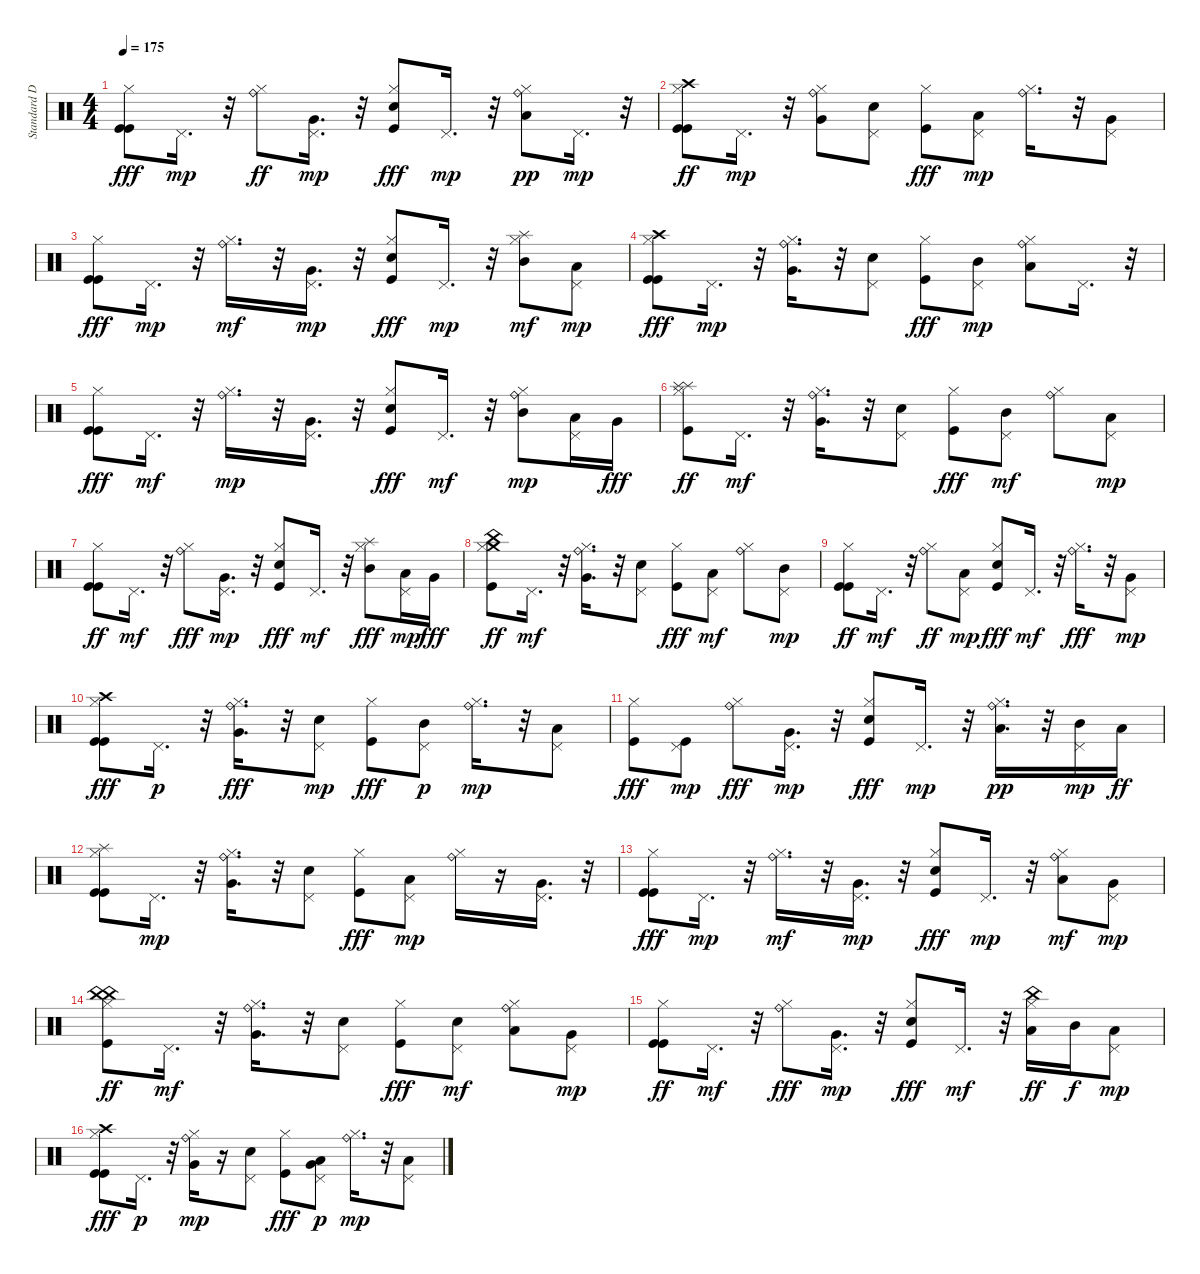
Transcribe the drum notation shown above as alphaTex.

\track ("Standard Drums" "Standard D") {instrument percussion}
\staff {score}
\articulation defaults
\ts (4 4)
\tempo 175
\clef neutral
\ks c
("Kick (hit)" "Kick (hit)" "Hi-Hat (closed)").8{dy fff} "Pedal Hi-Hat (hit)".16{d dy mp} r.32 ("Ride (bell)" "Hi-Hat (closed)").8{dy ff} ("Very Low Tom (hit)" "Pedal Hi-Hat (hit)").16{d dy mp} r.32 ("Snare (hit) 2" "Kick (hit)" "Hi-Hat (closed)").8{dy fff} "Pedal Hi-Hat (hit)".16{d dy mp} r.32 ("Ride (bell)" "Low Tom (hit)" "Hi-Hat (closed)").8{dy pp} "Pedal Hi-Hat (hit)".16{d dy mp} r.32 |
("Crash high (hit)" "Kick (hit)" "Kick (hit)" "Hi-Hat (closed)").8{dy ff} "Pedal Hi-Hat (hit)".16{d dy mp} r.32 ("Ride (bell)" "Very Low Tom (hit)" "Hi-Hat (closed)").8 ("Snare (hit) 2" "Pedal Hi-Hat (hit)").8 ("Kick (hit)" "Hi-Hat (closed)").8{dy fff} ("Low Tom (hit)" "Pedal Hi-Hat (hit)").8{dy mp} ("Ride (bell)" "Hi-Hat (closed)").16{d} r.32 ("Very Low Tom (hit)" "Pedal Hi-Hat (hit)").8 |
("Kick (hit)" "Kick (hit)" "Hi-Hat (closed)").8{dy fff} "Pedal Hi-Hat (hit)".16{d dy mp} r.32 ("Ride (bell)" "Hi-Hat (closed)").16{d dy mf} r.32 ("Very Low Tom (hit)" "Pedal Hi-Hat (hit)").16{d dy mp} r.32 ("Snare (hit) 2" "Kick (hit)" "Hi-Hat (closed)").8{dy fff} "Pedal Hi-Hat (hit)".16{d dy mp} r.32 ("Splash (hit)" "Mid Tom (hit)" "Hi-Hat (closed)").8{dy mf} ("Low Tom (hit)" "Pedal Hi-Hat (hit)").8{dy mp} |
("Crash high (hit)" "Kick (hit)" "Kick (hit)" "Hi-Hat (closed)").8{dy fff} "Pedal Hi-Hat (hit)".16{d dy mp} r.32 ("Ride (bell)" "Very Low Tom (hit)" "Hi-Hat (closed)").16{d} r.32 ("Snare (hit) 2" "Pedal Hi-Hat (hit)").8 ("Kick (hit)" "Hi-Hat (closed)").8{dy fff} ("Mid Tom (hit)" "Pedal Hi-Hat (hit)").8{dy mp} ("Ride (bell)" "Low Tom (hit)" "Hi-Hat (closed)").8 "Pedal Hi-Hat (hit)".16{d} r.32 |
("Kick (hit)" "Kick (hit)" "Hi-Hat (closed)").8{dy fff} "Pedal Hi-Hat (hit)".16{d dy mf} r.32 ("Ride (bell)" "Hi-Hat (closed)").16{d dy mp} r.32 ("Very Low Tom (hit)" "Pedal Hi-Hat (hit)").16{d} r.32 ("Snare (hit) 2" "Kick (hit)" "Hi-Hat (closed)").8{dy fff} "Pedal Hi-Hat (hit)".16{d dy mf} r.32 ("Ride (bell)" "Mid Tom (hit)" "Hi-Hat (closed)").8{dy mp} ("Low Tom (hit)" "Pedal Hi-Hat (hit)").16 "Very Low Tom (hit)".16{dy fff} |
("Splash (hit)" "Kick (hit)" "Splash (hit)" "Hi-Hat (closed)").8{dy ff} "Pedal Hi-Hat (hit)".16{d dy mf} r.32 ("Ride (bell)" "Very Low Tom (hit)" "Hi-Hat (closed)").16{d} r.32 ("Snare (hit) 2" "Pedal Hi-Hat (hit)").8 ("Kick (hit)" "Hi-Hat (closed)").8{dy fff} ("Mid Tom (hit)" "Pedal Hi-Hat (hit)").8{dy mf} ("Ride (bell)" "Hi-Hat (closed)").8 ("Low Tom (hit)" "Pedal Hi-Hat (hit)").8{dy mp} |
("Kick (hit)" "Kick (hit)" "Hi-Hat (closed)").8{dy ff} "Pedal Hi-Hat (hit)".16{d dy mf} r.32 ("Ride (bell)" "Hi-Hat (closed)").8{dy fff} ("Very Low Tom (hit)" "Pedal Hi-Hat (hit)").16{d dy mp} r.32 ("Snare (hit) 2" "Kick (hit)" "Hi-Hat (closed)").8{dy fff} "Pedal Hi-Hat (hit)".16{d dy mf} r.32 ("Splash (hit)" "Mid Tom (hit)" "Hi-Hat (closed)").8{dy fff} ("Low Tom (hit)" "Pedal Hi-Hat (hit)").16{dy mp} "Very Low Tom (hit)".16{dy fff} |
("Crash medium (hit)" "Kick (hit)" "China (hit)" "Hi-Hat (closed)").8{dy ff} "Pedal Hi-Hat (hit)".16{d dy mf} r.32 ("Ride (bell)" "Very Low Tom (hit)" "Hi-Hat (closed)").16{d} r.32 ("Snare (hit) 2" "Pedal Hi-Hat (hit)").8 ("Kick (hit)" "Hi-Hat (closed)").8{dy fff} ("Low Tom (hit)" "Pedal Hi-Hat (hit)").8{dy mf} ("Ride (bell)" "Hi-Hat (closed)").8 ("Mid Tom (hit)" "Pedal Hi-Hat (hit)").8{dy mp} |
("Kick (hit)" "Kick (hit)" "Hi-Hat (closed)").8{dy ff} "Pedal Hi-Hat (hit)".16{d dy mf} r.32 ("Ride (bell)" "Hi-Hat (closed)").8{dy ff} ("Low Tom (hit)" "Pedal Hi-Hat (hit)").8{dy mp} ("Snare (hit) 2" "Kick (hit)" "Hi-Hat (closed)").8{dy fff} "Pedal Hi-Hat (hit)".16{d dy mf} r.32 ("Ride (bell)" "Hi-Hat (closed)").16{d dy fff} r.32 ("Very Low Tom (hit)" "Pedal Hi-Hat (hit)").8{dy mp} |
("Crash high (hit)" "Kick (hit)" "Kick (hit)" "Hi-Hat (closed)").8{dy fff} "Pedal Hi-Hat (hit)".16{d dy p} r.32 ("Ride (bell)" "Very Low Tom (hit)" "Hi-Hat (closed)").16{d dy fff} r.32 ("Snare (hit) 2" "Pedal Hi-Hat (hit)").8{dy mp} ("Kick (hit)" "Hi-Hat (closed)").8{dy fff} ("Mid Tom (hit)" "Pedal Hi-Hat (hit)").8{dy p} ("Ride (bell)" "Hi-Hat (closed)").16{d dy mp} r.32 ("Low Tom (hit)" "Pedal Hi-Hat (hit)").8 |
("Kick (hit)" "Hi-Hat (closed)").8{dy fff} ("Kick (hit)" "Pedal Hi-Hat (hit)").8{dy mp} ("Ride (bell)" "Hi-Hat (closed)").8{dy fff} ("Very Low Tom (hit)" "Pedal Hi-Hat (hit)").16{d dy mp} r.32 ("Snare (hit) 2" "Kick (hit)" "Hi-Hat (closed)").8{dy fff} "Pedal Hi-Hat (hit)".16{d dy mp} r.32 ("Ride (bell)" "Low Tom (hit)" "Hi-Hat (closed)").16{d dy pp} r.32 ("Mid Tom (hit)" "Pedal Hi-Hat (hit)").16{dy mp} "Low Tom (hit)".16{dy ff} |
("Splash (hit)" "Kick (hit)" "Kick (hit)" "Hi-Hat (closed)").8 "Pedal Hi-Hat (hit)".16{d dy mp} r.32 ("Ride (bell)" "Very Low Tom (hit)" "Hi-Hat (closed)").16{d} r.32 ("Snare (hit) 2" "Pedal Hi-Hat (hit)").8 ("Kick (hit)" "Hi-Hat (closed)").8{dy fff} ("Low Tom (hit)" "Pedal Hi-Hat (hit)").8{dy mp} ("Ride (bell)" "Hi-Hat (closed)").16 r.16 ("Very Low Tom (hit)" "Pedal Hi-Hat (hit)").16{d} r.32 |
("Kick (hit)" "Kick (hit)" "Hi-Hat (closed)").8{dy fff} "Pedal Hi-Hat (hit)".16{d dy mp} r.32 ("Ride (bell)" "Hi-Hat (closed)").16{d dy mf} r.32 ("Very Low Tom (hit)" "Pedal Hi-Hat (hit)").16{d dy mp} r.32 ("Snare (hit) 2" "Kick (hit)" "Hi-Hat (closed)").8{dy fff} "Pedal Hi-Hat (hit)".16{d dy mp} r.32 ("Ride (bell)" "Low Tom (hit)" "Hi-Hat (closed)").8{dy mf} ("Very Low Tom (hit)" "Pedal Hi-Hat (hit)").8{dy mp} |
("China (hit)" "Kick (hit)" "China (hit)" "Hi-Hat (closed)").8{dy ff} "Pedal Hi-Hat (hit)".16{d dy mf} r.32 ("Ride (bell)" "Very Low Tom (hit)" "Hi-Hat (closed)").16{d} r.32 ("Snare (hit) 2" "Pedal Hi-Hat (hit)").8 ("Kick (hit)" "Hi-Hat (closed)").8{dy fff} ("Electric Snare (hit)" "Pedal Hi-Hat (hit)").8{dy mf} ("Ride (bell)" "Low Tom (hit)" "Hi-Hat (closed)").8 ("Very Low Tom (hit)" "Pedal Hi-Hat (hit)").8{dy mp} |
("Kick (hit)" "Kick (hit)" "Hi-Hat (closed)").8{dy ff} "Pedal Hi-Hat (hit)".16{d dy mf} r.32 ("Ride (bell)" "Hi-Hat (closed)").8{dy fff} ("Very Low Tom (hit)" "Pedal Hi-Hat (hit)").16{d dy mp} r.32 ("Snare (hit) 2" "Kick (hit)" "Hi-Hat (closed)").8{dy fff} "Pedal Hi-Hat (hit)".16{d dy mf} r.32 ("China (hit)" "Low Tom (hit)" "Hi-Hat (closed)").16{dy ff} "Mid Tom (hit)".16{dy f} ("Low Tom (hit)" "Pedal Hi-Hat (hit)").8{dy mp} |
("Crash high (hit)" "Kick (hit)" "Kick (hit)" "Hi-Hat (closed)").8{dy fff} "Pedal Hi-Hat (hit)".16{d dy p} r.32 ("Ride (bell)" "Very Low Tom (hit)" "Hi-Hat (closed)").16{dy mp} r.16 ("Snare (hit) 2" "Pedal Hi-Hat (hit)").8 ("Kick (hit)" "Hi-Hat (closed)").8{dy fff} ("Very Low Tom (hit)" "Low Floor Tom (hit)" "Pedal Hi-Hat (hit)").8{dy p} ("Ride (bell)" "Hi-Hat (closed)").16{d dy mp} r.32 ("Low Tom (hit)" "Pedal Hi-Hat (hit)").8
